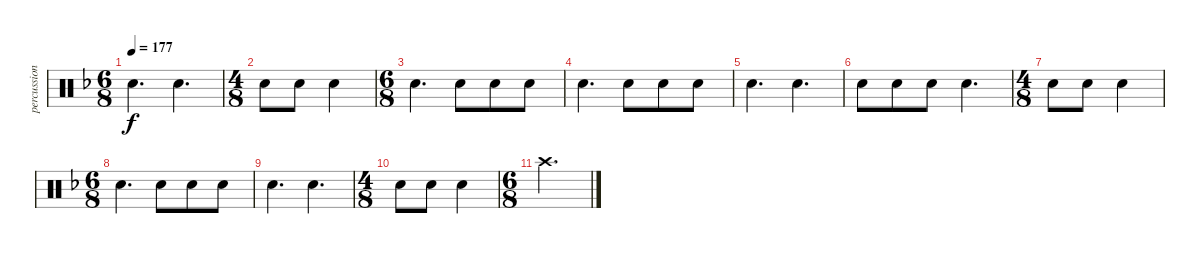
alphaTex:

\track ("percussion" "percussion") {instrument percussion}
\staff {score}
\articulation defaults
\ts (6 8)
\tempo 177
\clef neutral
\ks dminor "Snare (hit) 2".4{d dy f} "Snare (hit) 2".4{d}
|
\ts (4 8)
"Snare (hit) 2".8{beam merge} "Snare (hit) 2".8 "Snare (hit) 2".4 |
\ts (6 8)
"Snare (hit) 2".4{d} "Snare (hit) 2".8 "Snare (hit) 2".8 "Snare (hit) 2".8 |
"Snare (hit) 2".4{d} "Snare (hit) 2".8 "Snare (hit) 2".8 "Snare (hit) 2".8 |
"Snare (hit) 2".4{d} "Snare (hit) 2".4{d} |
"Snare (hit) 2".8 "Snare (hit) 2".8 "Snare (hit) 2".8 "Snare (hit) 2".4{d} |
\ts (4 8)
"Snare (hit) 2".8{beam merge} "Snare (hit) 2".8 "Snare (hit) 2".4 |
\ts (6 8)
"Snare (hit) 2".4{d} "Snare (hit) 2".8 "Snare (hit) 2".8 "Snare (hit) 2".8 |
"Snare (hit) 2".4{d} "Snare (hit) 2".4{d} |
\ts (4 8)
"Snare (hit) 2".8{beam merge} "Snare (hit) 2".8 "Snare (hit) 2".4 |
\ts (6 8)
"Crash high (hit)".2{d}
